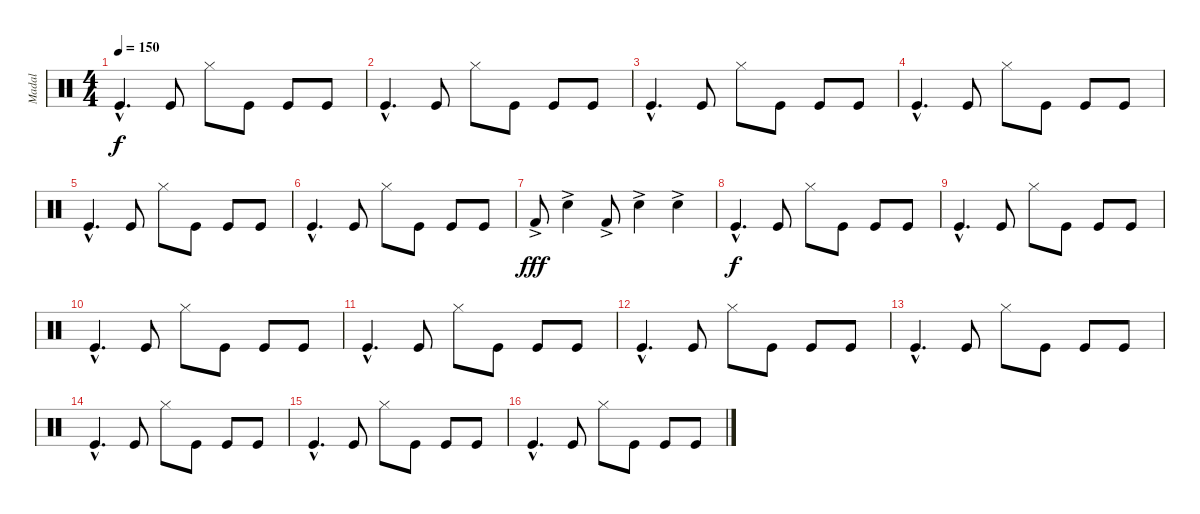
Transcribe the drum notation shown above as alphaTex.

\track ("Madal" "Madal") {instrument percussion}
\staff {score}
\articulation defaults
\ts (4 4)
\tempo 150
\clef neutral
\ks c "Kick (hit)"{hac}.4{d dy f} "Kick (hit)".8 "Hi-Hat (closed)".8 "Kick (hit)".8 "Kick (hit)".8 "Kick (hit)".8
|
"Kick (hit)"{hac}.4{d} "Kick (hit)".8 "Hi-Hat (closed)".8 "Kick (hit)".8 "Kick (hit)".8 "Kick (hit)".8 |
"Kick (hit)"{hac}.4{d} "Kick (hit)".8 "Hi-Hat (closed)".8 "Kick (hit)".8 "Kick (hit)".8 "Kick (hit)".8 |
"Kick (hit)"{hac}.4{d} "Kick (hit)".8 "Hi-Hat (closed)".8 "Kick (hit)".8 "Kick (hit)".8 "Kick (hit)".8 |
"Kick (hit)"{hac}.4{d} "Kick (hit)".8 "Hi-Hat (closed)".8 "Kick (hit)".8 "Kick (hit)".8 "Kick (hit)".8 |
"Kick (hit)"{hac}.4{d} "Kick (hit)".8 "Hi-Hat (closed)".8 "Kick (hit)".8 "Kick (hit)".8 "Kick (hit)".8 |
"Kick (hit) 2"{ac}.8{dy fff volume 6} "Electric Snare (hit)"{ac}.4 "Kick (hit) 2"{ac}.8 "Electric Snare (hit)"{ac}.4 "Electric Snare (hit)"{ac}.4 |
"Kick (hit)"{hac}.4{d dy f} "Kick (hit)".8 "Hi-Hat (closed)".8 "Kick (hit)".8 "Kick (hit)".8 "Kick (hit)".8 |
"Kick (hit)"{hac}.4{d} "Kick (hit)".8 "Hi-Hat (closed)".8 "Kick (hit)".8 "Kick (hit)".8 "Kick (hit)".8 |
"Kick (hit)"{hac}.4{d} "Kick (hit)".8 "Hi-Hat (closed)".8 "Kick (hit)".8 "Kick (hit)".8 "Kick (hit)".8 |
"Kick (hit)"{hac}.4{d} "Kick (hit)".8 "Hi-Hat (closed)".8 "Kick (hit)".8 "Kick (hit)".8 "Kick (hit)".8 |
"Kick (hit)"{hac}.4{d} "Kick (hit)".8 "Hi-Hat (closed)".8 "Kick (hit)".8 "Kick (hit)".8 "Kick (hit)".8 |
"Kick (hit)"{hac}.4{d} "Kick (hit)".8 "Hi-Hat (closed)".8 "Kick (hit)".8 "Kick (hit)".8 "Kick (hit)".8 |
"Kick (hit)"{hac}.4{d} "Kick (hit)".8 "Hi-Hat (closed)".8 "Kick (hit)".8 "Kick (hit)".8 "Kick (hit)".8 |
"Kick (hit)"{hac}.4{d} "Kick (hit)".8 "Hi-Hat (closed)".8 "Kick (hit)".8 "Kick (hit)".8 "Kick (hit)".8 |
"Kick (hit)"{hac}.4{d} "Kick (hit)".8 "Hi-Hat (closed)".8 "Kick (hit)".8 "Kick (hit)".8 "Kick (hit)".8
